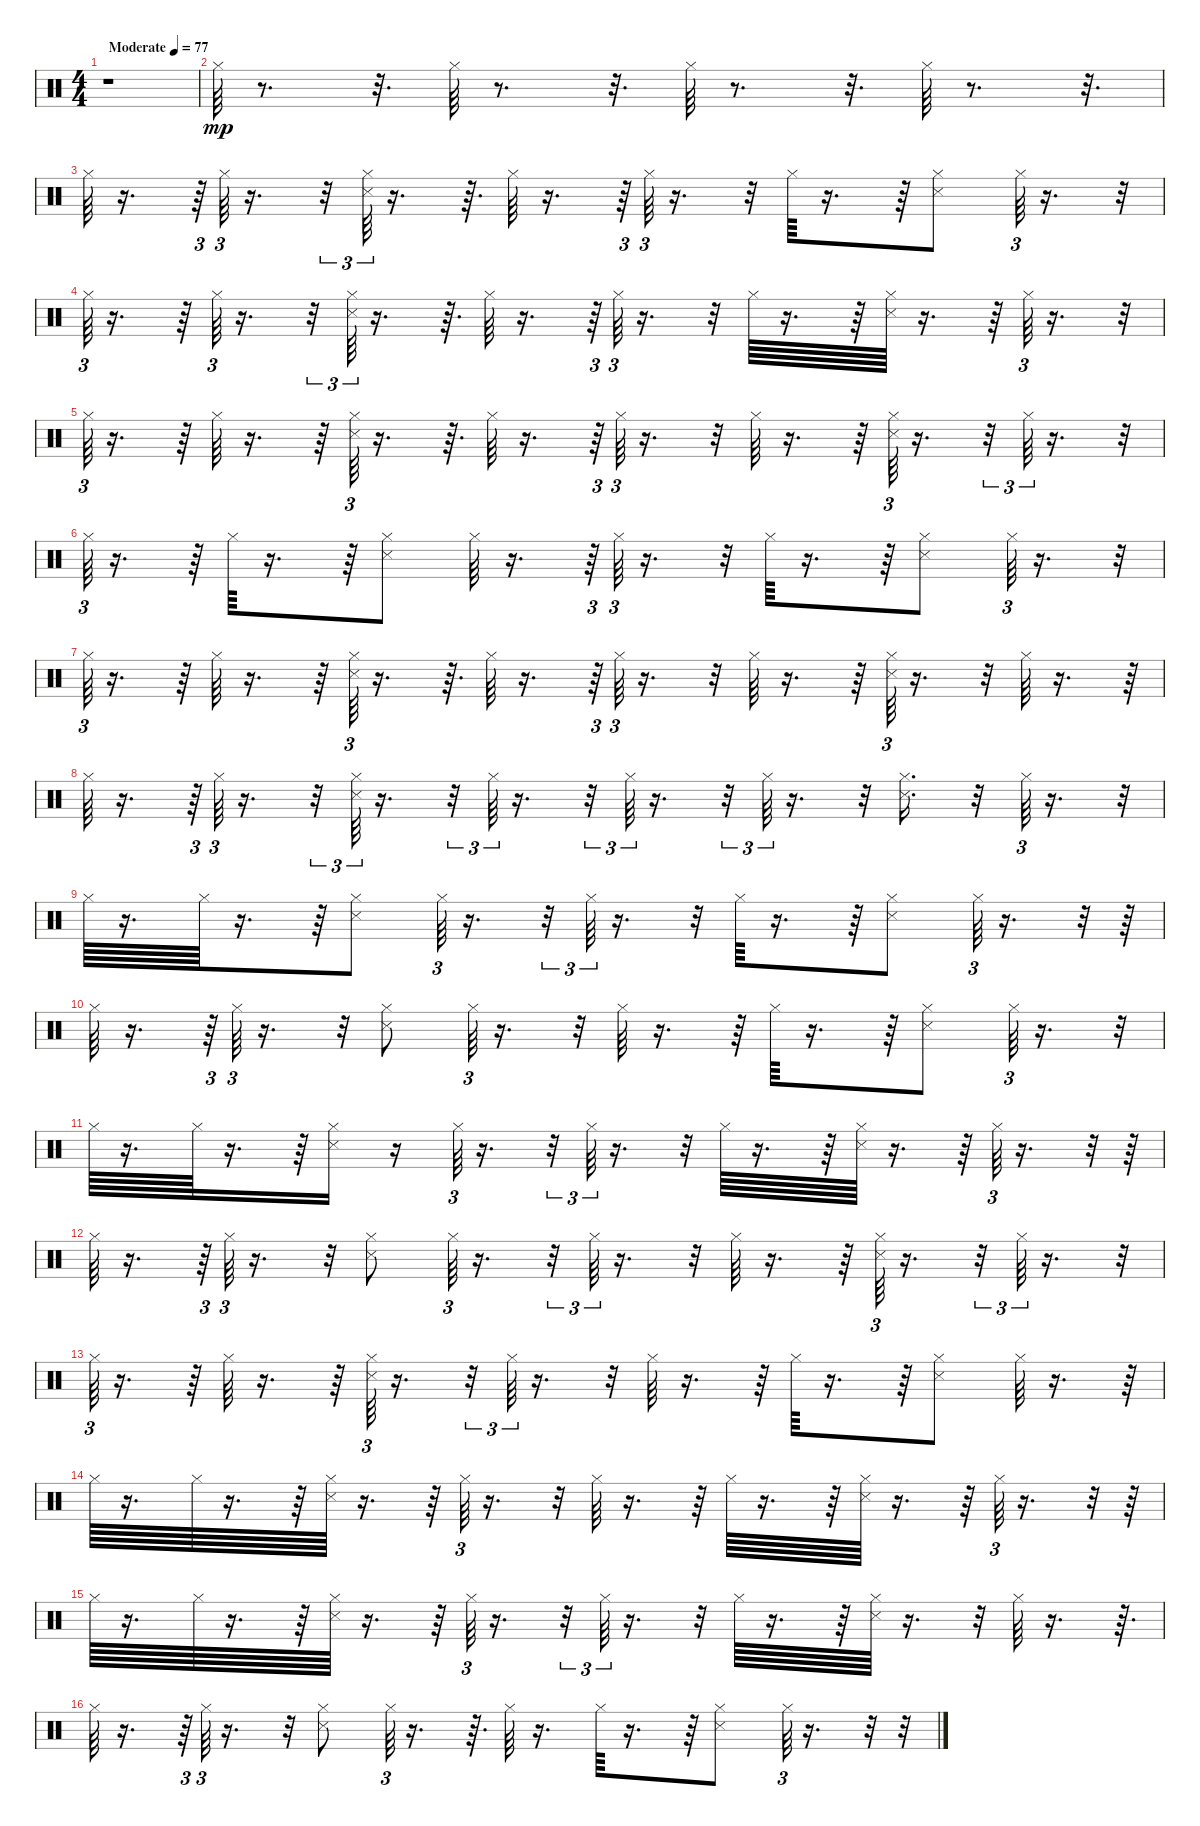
\track "" {instrument percussion}
\staff {score}
\articulation defaults
\ts (4 4)
\tempo (77 "Moderate")
\clef neutral
\ks c
r.1{dy mp} |
"Hi-Hat (closed)".64 r.8{d} r.32{d} "Hi-Hat (closed)".64 r.8{d} r.32{d} "Hi-Hat (closed)".64 r.8{d} r.32{d} "Hi-Hat (closed)".64 r.8{d} r.32{d} |
"Hi-Hat (closed)".64 r.16{d} r.64{tu (3 2)} "Hi-Hat (closed)".64{tu (3 2)} r.16{d} r.32{tu (3 2)} ("Hi-Hat (closed)" "Snare (side stick) 3").64{tu (3 2)} r.16{d} r.64{d} "Hi-Hat (closed)".64 r.16{d} r.64{tu (3 2)} "Hi-Hat (closed)".64{tu (3 2)} r.16{d} r.32{tu (3 2)} "Hi-Hat (closed)".64 r.16{d} r.64 ("Snare (side stick) 3" "Hi-Hat (closed)").8 "Hi-Hat (closed)".64{tu (3 2)} r.16{d} r.32{tu (3 2)} |
"Hi-Hat (closed)".64{tu (3 2)} r.16{d} r.64 "Hi-Hat (closed)".64{tu (3 2)} r.16{d} r.32{tu (3 2)} ("Hi-Hat (closed)" "Snare (side stick) 3").64{tu (3 2)} r.16{d} r.64{d} "Hi-Hat (closed)".64 r.16{d} r.64{tu (3 2)} "Hi-Hat (closed)".64{tu (3 2)} r.16{d} r.32{tu (3 2)} "Hi-Hat (closed)".64 r.16{d} r.64 ("Hi-Hat (closed)" "Snare (side stick) 3").64 r.16{d} r.64 "Hi-Hat (closed)".64{tu (3 2)} r.16{d} r.32{tu (3 2)} |
"Hi-Hat (closed)".64{tu (3 2)} r.16{d} r.64 "Hi-Hat (closed)".64 r.16{d} r.64 ("Hi-Hat (closed)" "Snare (side stick) 3").64{tu (3 2)} r.16{d} r.64{d} "Hi-Hat (closed)".64 r.16{d} r.64{tu (3 2)} "Hi-Hat (closed)".64{tu (3 2)} r.16{d} r.32{tu (3 2)} "Hi-Hat (closed)".64 r.16{d} r.64 ("Hi-Hat (closed)" "Snare (side stick) 3").64{tu (3 2)} r.16{d} r.32{tu (3 2)} "Hi-Hat (closed)".64{tu (3 2)} r.16{d} r.32{tu (3 2)} |
"Hi-Hat (closed)".64{tu (3 2)} r.16{d} r.64 "Hi-Hat (closed)".64 r.16{d} r.64 ("Snare (side stick) 3" "Hi-Hat (closed)").8 "Hi-Hat (closed)".64 r.16{d} r.64{tu (3 2)} "Hi-Hat (closed)".64{tu (3 2)} r.16{d} r.32{tu (3 2)} "Hi-Hat (closed)".64 r.16{d} r.64 ("Hi-Hat (closed)" "Snare (side stick) 3").8 "Hi-Hat (closed)".64{tu (3 2)} r.16{d} r.32{tu (3 2)} |
"Hi-Hat (closed)".64{tu (3 2)} r.16{d} r.64 "Hi-Hat (closed)".64 r.16{d} r.64 ("Hi-Hat (closed)" "Snare (side stick) 3").64{tu (3 2)} r.16{d} r.64{d} "Hi-Hat (closed)".64 r.16{d} r.64{tu (3 2)} "Hi-Hat (closed)".64{tu (3 2)} r.16{d} r.32{tu (3 2)} "Hi-Hat (closed)".64 r.16{d} r.64 ("Hi-Hat (closed)" "Snare (side stick) 3").64{tu (3 2)} r.16{d} r.32{tu (3 2)} "Hi-Hat (closed)".64 r.16{d} r.64 |
"Hi-Hat (closed)".64 r.16{d} r.64{tu (3 2)} "Hi-Hat (closed)".64{tu (3 2)} r.16{d} r.32{tu (3 2)} ("Hi-Hat (closed)" "Snare (side stick) 3").64{tu (3 2)} r.16{d} r.32{tu (3 2)} "Hi-Hat (closed)".64{tu (3 2)} r.16{d} r.32{tu (3 2)} "Hi-Hat (closed)".64{tu (3 2)} r.16{d} r.32{tu (3 2)} "Hi-Hat (closed)".64{tu (3 2)} r.16{d} r.32{tu (3 2)} ("Hi-Hat (closed)" "Snare (side stick) 3").16{d} r.32 "Hi-Hat (closed)".64{tu (3 2)} r.16{d} r.32{tu (3 2)} |
"Hi-Hat (closed)".64 r.16{d} "Hi-Hat (closed)".64 r.16{d} r.64 ("Snare (side stick) 3" "Hi-Hat (closed)").8 "Hi-Hat (closed)".64{tu (3 2)} r.16{d} r.32{tu (3 2)} "Hi-Hat (closed)".64{tu (3 2)} r.16{d} r.32{tu (3 2)} "Hi-Hat (closed)".64 r.16{d} r.64 ("Snare (side stick) 3" "Hi-Hat (closed)").8 "Hi-Hat (closed)".64{tu (3 2)} r.16{d} r.32{tu (3 2)} r.64 |
"Hi-Hat (closed)".64 r.16{d} r.64{tu (3 2)} "Hi-Hat (closed)".64{tu (3 2)} r.16{d} r.32{tu (3 2)} ("Snare (side stick) 3" "Hi-Hat (closed)").8 "Hi-Hat (closed)".64{tu (3 2)} r.16{d} r.32{tu (3 2)} "Hi-Hat (closed)".64 r.16{d} r.64 "Hi-Hat (closed)".64 r.16{d} r.64 ("Snare (side stick) 3" "Hi-Hat (closed)").8 "Hi-Hat (closed)".64{tu (3 2)} r.16{d} r.32{tu (3 2)} |
"Hi-Hat (closed)".64 r.16{d} "Hi-Hat (closed)".64 r.16{d} r.64 ("Hi-Hat (closed)" "Snare (side stick) 3").16 r.16 "Hi-Hat (closed)".64{tu (3 2)} r.16{d} r.32{tu (3 2)} "Hi-Hat (closed)".64{tu (3 2)} r.16{d} r.32{tu (3 2)} "Hi-Hat (closed)".64 r.16{d} r.64 ("Hi-Hat (closed)" "Snare (side stick) 3").64 r.16{d} r.64 "Hi-Hat (closed)".64{tu (3 2)} r.16{d} r.32{tu (3 2)} r.64 |
"Hi-Hat (closed)".64 r.16{d} r.64{tu (3 2)} "Hi-Hat (closed)".64{tu (3 2)} r.16{d} r.32{tu (3 2)} ("Snare (side stick) 3" "Hi-Hat (closed)").8 "Hi-Hat (closed)".64{tu (3 2)} r.16{d} r.32{tu (3 2)} "Hi-Hat (closed)".64{tu (3 2)} r.16{d} r.32{tu (3 2)} "Hi-Hat (closed)".64 r.16{d} r.64 ("Hi-Hat (closed)" "Snare (side stick) 3").64{tu (3 2)} r.16{d} r.32{tu (3 2)} "Hi-Hat (closed)".64{tu (3 2)} r.16{d} r.32{tu (3 2)} |
"Hi-Hat (closed)".64{tu (3 2)} r.16{d} r.64 "Hi-Hat (closed)".64 r.16{d} r.64 ("Hi-Hat (closed)" "Snare (side stick) 3").64{tu (3 2)} r.16{d} r.32{tu (3 2)} "Hi-Hat (closed)".64{tu (3 2)} r.16{d} r.32{tu (3 2)} "Hi-Hat (closed)".64 r.16{d} r.64 "Hi-Hat (closed)".64 r.16{d} r.64 ("Snare (side stick) 3" "Hi-Hat (closed)").8 "Hi-Hat (closed)".64 r.16{d} r.64 |
"Hi-Hat (closed)".64 r.16{d} "Hi-Hat (closed)".64 r.16{d} r.64 ("Hi-Hat (closed)" "Snare (side stick) 3").64 r.16{d} r.64 "Hi-Hat (closed)".64{tu (3 2)} r.16{d} r.32{tu (3 2)} "Hi-Hat (closed)".64 r.16{d} r.64 "Hi-Hat (closed)".64 r.16{d} r.64 ("Hi-Hat (closed)" "Snare (side stick) 3").64 r.16{d} r.64 "Hi-Hat (closed)".64{tu (3 2)} r.16{d} r.32{tu (3 2)} r.64 |
"Hi-Hat (closed)".64 r.16{d} "Hi-Hat (closed)".64 r.16{d} r.64 ("Hi-Hat (closed)" "Snare (side stick) 3").64 r.16{d} r.64 "Hi-Hat (closed)".64{tu (3 2)} r.16{d} r.32{tu (3 2)} "Hi-Hat (closed)".64{tu (3 2)} r.16{d} r.32{tu (3 2)} "Hi-Hat (closed)".64 r.16{d} r.64 ("Hi-Hat (closed)" "Snare (side stick) 3").64 r.16{d} r.32{tu (3 2)} "Hi-Hat (closed)".64 r.16{d} r.64{d} |
"Hi-Hat (closed)".64 r.16{d} r.64{tu (3 2)} "Hi-Hat (closed)".64{tu (3 2)} r.16{d} r.32{tu (3 2)} ("Snare (side stick) 3" "Hi-Hat (closed)").8 "Hi-Hat (closed)".64{tu (3 2)} r.16{d} r.64{d} "Hi-Hat (closed)".64 r.16{d} "Hi-Hat (closed)".64 r.16{d} r.64 ("Snare (side stick) 3" "Hi-Hat (closed)").8 "Hi-Hat (closed)".64{tu (3 2)} r.16{d} r.32{tu (3 2)} r.32{tu (3 2)}
